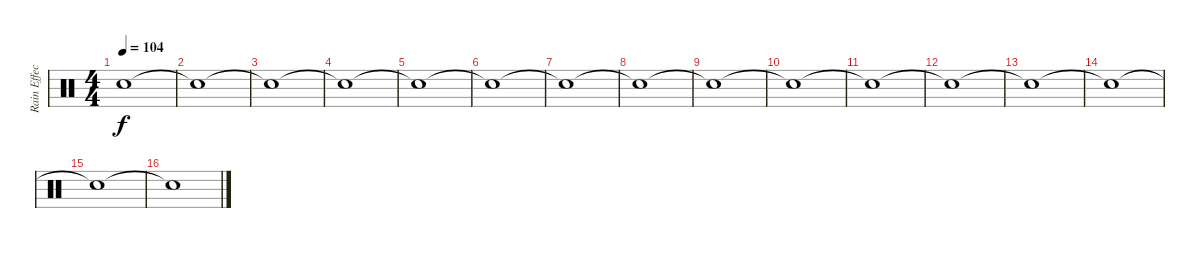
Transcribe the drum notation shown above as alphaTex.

\track ("Rain Effect" "Rain Effec") {instrument percussion}
\staff {score}
\articulation defaults
\ts (4 4)
\tempo 104
\clef neutral
\ks c "Snare (hit)"{t}.1{dy f}
|
"Snare (hit)"{t}.1 |
"Snare (hit)"{t}.1 |
"Snare (hit)"{t}.1 |
"Snare (hit)"{t}.1 |
"Snare (hit)"{t}.1 |
"Snare (hit)"{t}.1 |
"Snare (hit)"{t}.1 |
"Snare (hit)"{t}.1 |
"Snare (hit)"{t}.1 |
"Snare (hit)"{t}.1 |
"Snare (hit)"{t}.1 |
"Snare (hit)"{t}.1 |
"Snare (hit)"{t}.1 |
"Snare (hit)"{t}.1 |
"Snare (hit)"{t}.1
